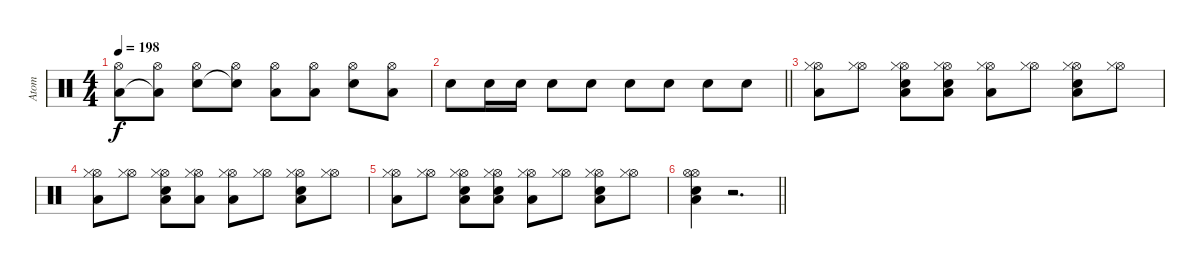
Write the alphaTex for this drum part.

\track ("Atom" "Atom") {instrument percussion}
\staff
\articulation defaults
\ts (4 4)
\tempo 198
\clef neutral
\ks c
("Low Floor Tom (hit)" "Hi-Hat (open)").8{dy f} ("Low Floor Tom (hit)"{t} "Hi-Hat (open)").8 ("Snare (hit) 2" "Hi-Hat (open)").8 ("Snare (hit) 2"{t} "Hi-Hat (open)").8 ("Low Floor Tom (hit)" "Hi-Hat (open)").8 ("Low Floor Tom (hit)" "Hi-Hat (open)").8 ("Snare (hit) 2" "Hi-Hat (open)").8 ("Low Floor Tom (hit)" "Hi-Hat (open)").8 |
\barLineRight lightlight "Snare (hit) 2".8 "Snare (hit) 2".16 "Snare (hit) 2".16 "Snare (hit) 2".8 "Snare (hit) 2".8 "Snare (hit) 2".8 "Snare (hit) 2".8 "Snare (hit) 2".8 "Snare (hit) 2".8
|
("Hi-Hat (open)" "Low Floor Tom (hit)" "Hi-Hat (closed)").8 ("Hi-Hat (open)" "Hi-Hat (closed)").8 ("Hi-Hat (open)" "Snare (hit) 2" "Low Floor Tom (hit)" "Hi-Hat (closed)").8 ("Hi-Hat (open)" "Snare (hit) 2" "Low Floor Tom (hit)" "Hi-Hat (closed)").8 ("Hi-Hat (open)" "Low Floor Tom (hit)" "Hi-Hat (closed)").8 ("Hi-Hat (open)" "Hi-Hat (closed)").8 ("Hi-Hat (open)" "Snare (hit) 2" "Low Floor Tom (hit)" "Hi-Hat (closed)").8 ("Hi-Hat (open)" "Hi-Hat (closed)").8 |
("Hi-Hat (open)" "Low Floor Tom (hit)" "Hi-Hat (closed)").8 ("Hi-Hat (open)" "Hi-Hat (closed)").8 ("Hi-Hat (open)" "Snare (hit) 2" "Low Floor Tom (hit)" "Hi-Hat (closed)").8 ("Hi-Hat (open)" "Low Floor Tom (hit)" "Hi-Hat (closed)").8 ("Hi-Hat (open)" "Low Floor Tom (hit)" "Hi-Hat (closed)").8 ("Hi-Hat (open)" "Hi-Hat (closed)").8 ("Hi-Hat (open)" "Snare (hit) 2" "Low Floor Tom (hit)" "Hi-Hat (closed)").8 ("Hi-Hat (open)" "Hi-Hat (closed)").8 |
("Hi-Hat (open)" "Low Floor Tom (hit)" "Hi-Hat (closed)").8 ("Hi-Hat (open)" "Hi-Hat (closed)").8 ("Hi-Hat (open)" "Snare (hit) 2" "Low Floor Tom (hit)" "Hi-Hat (closed)").8 ("Hi-Hat (open)" "Snare (hit) 2" "Low Floor Tom (hit)" "Hi-Hat (closed)").8 ("Hi-Hat (open)" "Low Floor Tom (hit)" "Hi-Hat (closed)").8 ("Hi-Hat (open)" "Hi-Hat (closed)").8 ("Hi-Hat (open)" "Snare (hit) 2" "Low Floor Tom (hit)" "Hi-Hat (closed)").8 ("Hi-Hat (open)" "Hi-Hat (closed)").8 |
\barLineRight lightlight
("Hi-Hat (open)" "Snare (hit) 2" "Low Floor Tom (hit)" "Hi-Hat (open)").4 r.2{d}
